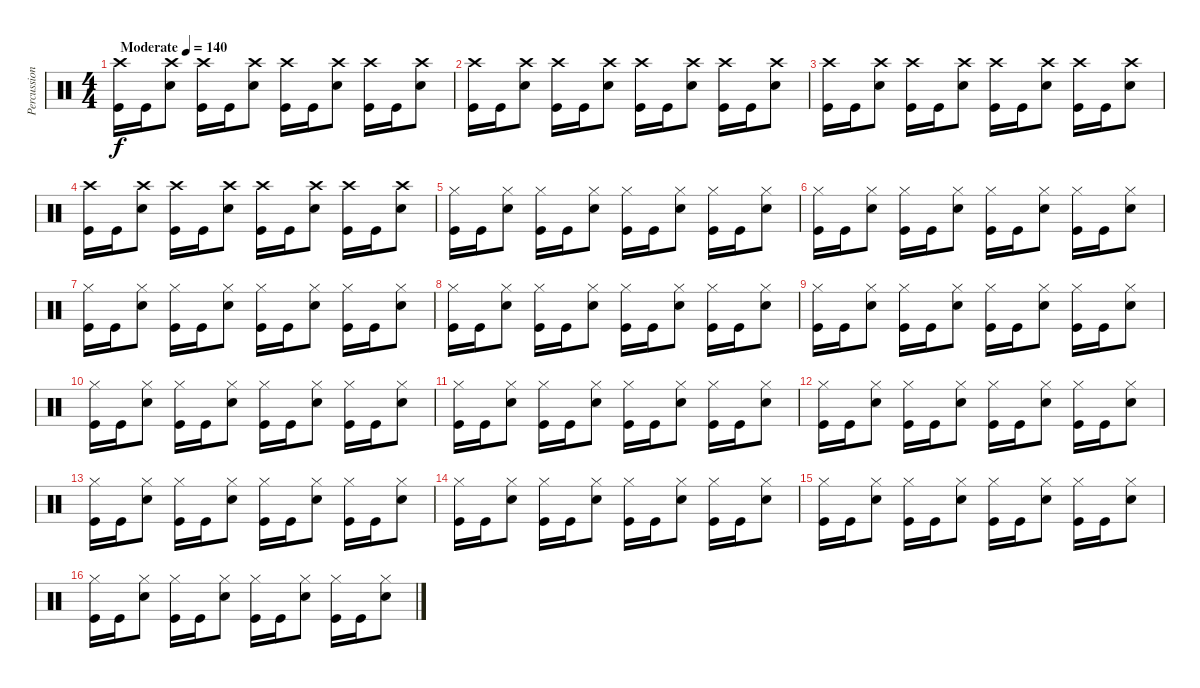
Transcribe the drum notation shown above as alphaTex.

\track ("Percussion" "Percussion") {instrument percussion}
\staff {score}
\articulation defaults
\ts (4 4)
\tempo (140 "Moderate")
\clef neutral
\ks c
("Crash high (hit)" "Kick (hit)").16{dy f} "Kick (hit)".16 ("Crash high (hit)" "Snare (hit) 2").8 ("Crash high (hit)" "Kick (hit)").16 "Kick (hit)".16 ("Crash high (hit)" "Snare (hit) 2").8 ("Crash high (hit)" "Kick (hit)").16 "Kick (hit)".16 ("Crash high (hit)" "Electric Snare (hit)").8 ("Crash high (hit)" "Kick (hit)").16 "Kick (hit)".16 ("Crash high (hit)" "Electric Snare (hit)").8 |
("Crash high (hit)" "Kick (hit)").16 "Kick (hit)".16 ("Crash high (hit)" "Electric Snare (hit)").8 ("Crash high (hit)" "Kick (hit)").16 "Kick (hit)".16 ("Crash high (hit)" "Electric Snare (hit)").8 ("Crash high (hit)" "Kick (hit)").16 "Kick (hit)".16 ("Crash high (hit)" "Electric Snare (hit)").8 ("Crash high (hit)" "Kick (hit)").16 "Kick (hit)".16 ("Crash high (hit)" "Electric Snare (hit)").8 |
("Crash high (hit)" "Kick (hit)").16 "Kick (hit)".16 ("Crash high (hit)" "Electric Snare (hit)").8 ("Crash high (hit)" "Kick (hit)").16 "Kick (hit)".16 ("Crash high (hit)" "Electric Snare (hit)").8 ("Crash high (hit)" "Kick (hit)").16 "Kick (hit)".16 ("Crash high (hit)" "Electric Snare (hit)").8 ("Crash high (hit)" "Kick (hit)").16 "Kick (hit)".16 ("Crash high (hit)" "Electric Snare (hit)").8 |
("Crash high (hit)" "Kick (hit)").16 "Kick (hit)".16 ("Crash high (hit)" "Electric Snare (hit)").8 ("Crash high (hit)" "Kick (hit)").16 "Kick (hit)".16 ("Crash high (hit)" "Electric Snare (hit)").8 ("Crash high (hit)" "Kick (hit)").16 "Kick (hit)".16 ("Crash high (hit)" "Electric Snare (hit)").8 ("Crash high (hit)" "Kick (hit)").16 "Kick (hit)".16 ("Crash high (hit)" "Electric Snare (hit)").8 |
("Hi-Hat (closed)" "Kick (hit)").16 "Kick (hit)".16 ("Hi-Hat (closed)" "Electric Snare (hit)").8 ("Hi-Hat (closed)" "Kick (hit)").16 "Kick (hit)".16 ("Hi-Hat (closed)" "Electric Snare (hit)").8 ("Hi-Hat (closed)" "Kick (hit)").16 "Kick (hit)".16 ("Hi-Hat (closed)" "Electric Snare (hit)").8 ("Hi-Hat (closed)" "Kick (hit)").16 "Kick (hit)".16 ("Hi-Hat (closed)" "Electric Snare (hit)").8 |
("Hi-Hat (closed)" "Kick (hit)").16 "Kick (hit)".16 ("Hi-Hat (closed)" "Electric Snare (hit)").8 ("Hi-Hat (closed)" "Kick (hit)").16 "Kick (hit)".16 ("Hi-Hat (closed)" "Electric Snare (hit)").8 ("Hi-Hat (closed)" "Kick (hit)").16 "Kick (hit)".16 ("Hi-Hat (closed)" "Electric Snare (hit)").8 ("Hi-Hat (closed)" "Kick (hit)").16 "Kick (hit)".16 ("Hi-Hat (closed)" "Electric Snare (hit)").8 |
("Hi-Hat (closed)" "Kick (hit)").16 "Kick (hit)".16 ("Hi-Hat (closed)" "Electric Snare (hit)").8 ("Hi-Hat (closed)" "Kick (hit)").16 "Kick (hit)".16 ("Hi-Hat (closed)" "Electric Snare (hit)").8 ("Hi-Hat (closed)" "Kick (hit)").16 "Kick (hit)".16 ("Hi-Hat (closed)" "Electric Snare (hit)").8 ("Hi-Hat (closed)" "Kick (hit)").16 "Kick (hit)".16 ("Hi-Hat (closed)" "Electric Snare (hit)").8 |
("Hi-Hat (closed)" "Kick (hit)").16 "Kick (hit)".16 ("Hi-Hat (closed)" "Electric Snare (hit)").8 ("Hi-Hat (closed)" "Kick (hit)").16 "Kick (hit)".16 ("Hi-Hat (closed)" "Electric Snare (hit)").8 ("Hi-Hat (closed)" "Kick (hit)").16 "Kick (hit)".16 ("Hi-Hat (closed)" "Electric Snare (hit)").8 ("Hi-Hat (closed)" "Kick (hit)").16 "Kick (hit)".16 ("Hi-Hat (closed)" "Electric Snare (hit)").8 |
("Hi-Hat (closed)" "Kick (hit)").16 "Kick (hit)".16 ("Hi-Hat (closed)" "Electric Snare (hit)").8 ("Hi-Hat (closed)" "Kick (hit)").16 "Kick (hit)".16 ("Hi-Hat (closed)" "Electric Snare (hit)").8 ("Hi-Hat (closed)" "Kick (hit)").16 "Kick (hit)".16 ("Hi-Hat (closed)" "Electric Snare (hit)").8 ("Hi-Hat (closed)" "Kick (hit)").16 "Kick (hit)".16 ("Hi-Hat (closed)" "Electric Snare (hit)").8 |
("Hi-Hat (closed)" "Kick (hit)").16 "Kick (hit)".16 ("Hi-Hat (closed)" "Electric Snare (hit)").8 ("Hi-Hat (closed)" "Kick (hit)").16 "Kick (hit)".16 ("Hi-Hat (closed)" "Electric Snare (hit)").8 ("Hi-Hat (closed)" "Kick (hit)").16 "Kick (hit)".16 ("Hi-Hat (closed)" "Electric Snare (hit)").8 ("Hi-Hat (closed)" "Kick (hit)").16 "Kick (hit)".16 ("Hi-Hat (closed)" "Electric Snare (hit)").8 |
("Hi-Hat (closed)" "Kick (hit)").16 "Kick (hit)".16 ("Hi-Hat (closed)" "Electric Snare (hit)").8 ("Hi-Hat (closed)" "Kick (hit)").16 "Kick (hit)".16 ("Hi-Hat (closed)" "Electric Snare (hit)").8 ("Hi-Hat (closed)" "Kick (hit)").16 "Kick (hit)".16 ("Hi-Hat (closed)" "Electric Snare (hit)").8 ("Hi-Hat (closed)" "Kick (hit)").16 "Kick (hit)".16 ("Hi-Hat (closed)" "Electric Snare (hit)").8 |
("Hi-Hat (closed)" "Kick (hit)").16 "Kick (hit)".16 ("Hi-Hat (closed)" "Electric Snare (hit)").8 ("Hi-Hat (closed)" "Kick (hit)").16 "Kick (hit)".16 ("Hi-Hat (closed)" "Electric Snare (hit)").8 ("Hi-Hat (closed)" "Kick (hit)").16 "Kick (hit)".16 ("Hi-Hat (closed)" "Electric Snare (hit)").8 ("Hi-Hat (closed)" "Kick (hit)").16 "Kick (hit)".16 ("Hi-Hat (closed)" "Electric Snare (hit)").8 |
("Hi-Hat (closed)" "Kick (hit)").16 "Kick (hit)".16 ("Hi-Hat (closed)" "Electric Snare (hit)").8 ("Hi-Hat (closed)" "Kick (hit)").16 "Kick (hit)".16 ("Hi-Hat (closed)" "Electric Snare (hit)").8 ("Hi-Hat (closed)" "Kick (hit)").16 "Kick (hit)".16 ("Hi-Hat (closed)" "Electric Snare (hit)").8 ("Hi-Hat (closed)" "Kick (hit)").16 "Kick (hit)".16 ("Hi-Hat (closed)" "Electric Snare (hit)").8 |
("Hi-Hat (closed)" "Kick (hit)").16 "Kick (hit)".16 ("Hi-Hat (closed)" "Electric Snare (hit)").8 ("Hi-Hat (closed)" "Kick (hit)").16 "Kick (hit)".16 ("Hi-Hat (closed)" "Electric Snare (hit)").8 ("Hi-Hat (closed)" "Kick (hit)").16 "Kick (hit)".16 ("Hi-Hat (closed)" "Electric Snare (hit)").8 ("Hi-Hat (closed)" "Kick (hit)").16 "Kick (hit)".16 ("Hi-Hat (closed)" "Electric Snare (hit)").8 |
("Hi-Hat (closed)" "Kick (hit)").16 "Kick (hit)".16 ("Hi-Hat (closed)" "Electric Snare (hit)").8 ("Hi-Hat (closed)" "Kick (hit)").16 "Kick (hit)".16 ("Hi-Hat (closed)" "Electric Snare (hit)").8 ("Hi-Hat (closed)" "Kick (hit)").16 "Kick (hit)".16 ("Hi-Hat (closed)" "Electric Snare (hit)").8 ("Hi-Hat (closed)" "Kick (hit)").16 "Kick (hit)".16 ("Hi-Hat (closed)" "Electric Snare (hit)").8 |
("Hi-Hat (closed)" "Kick (hit)").16 "Kick (hit)".16 ("Hi-Hat (closed)" "Electric Snare (hit)").8 ("Hi-Hat (closed)" "Kick (hit)").16 "Kick (hit)".16 ("Hi-Hat (closed)" "Electric Snare (hit)").8 ("Hi-Hat (closed)" "Kick (hit)").16 "Kick (hit)".16 ("Hi-Hat (closed)" "Electric Snare (hit)").8 ("Hi-Hat (closed)" "Kick (hit)").16 "Kick (hit)".16 ("Hi-Hat (closed)" "Electric Snare (hit)").8
